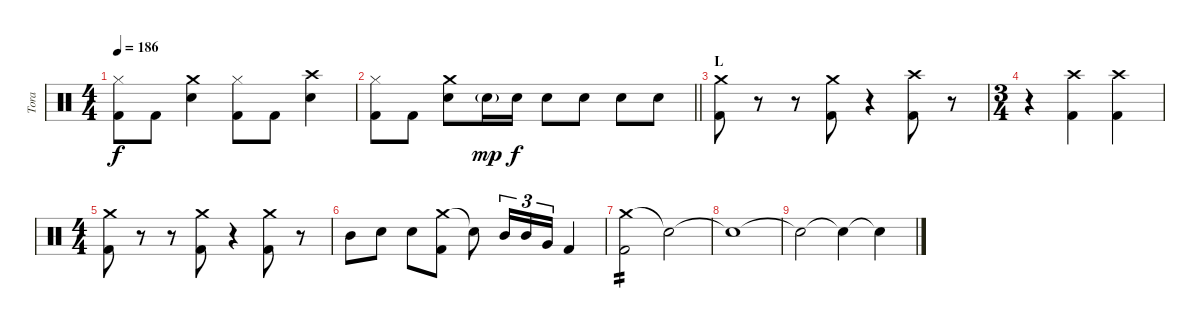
\track ("Tora" "Tora") {instrument percussion}
\staff {score}
\articulation defaults
\ts (4 4)
\tempo 186
\clef neutral
\ks c
("Hi-Hat (closed)" "Kick (hit) 2").8{dy f} "Kick (hit) 2".8 ("Crash medium (hit)" "Electric Snare (hit)").4 ("Hi-Hat (closed)" "Kick (hit) 2").8 "Kick (hit) 2".8 ("Crash high (hit)" "Electric Snare (hit)").4 |
\barLineRight lightlight
("Hi-Hat (closed)" "Kick (hit) 2").8 "Kick (hit) 2".8 ("Crash medium (hit)" "Electric Snare (hit)").8 "Electric Snare (hit)"{g}.16{dy mp} "Electric Snare (hit)".16{dy f} "Electric Snare (hit)".8 "Electric Snare (hit)".8 "Electric Snare (hit)".8 "Electric Snare (hit)".8 |
\section ("" "L")
("Crash medium (hit)" "Kick (hit) 2").8 r.8 r.8 ("Crash medium (hit)" "Kick (hit) 2").8 r.4 ("Crash high (hit)" "Kick (hit) 2").8 r.8 |
\ts (3 4)
r.4 ("Crash high (hit)" "Kick (hit) 2").4 ("Crash high (hit)" "Kick (hit) 2").4 |
\ts (4 4)
("Crash medium (hit)" "Kick (hit) 2").8 r.8 r.8 ("Crash medium (hit)" "Kick (hit) 2").8 r.4 ("Crash medium (hit)" "Kick (hit) 2").8 r.8 |
"Mid Tom (hit)".8 "Electric Snare (hit)".8 "Electric Snare (hit)".8 ("Crash medium (hit)" "Kick (hit) 2").8 "Snare (hit)"{t}.8 "Mid Tom (hit)".16{tu (3 2)} "Mid Tom (hit)".16{tu (3 2)} "Very Low Tom (hit)".16{tu (3 2)} "Kick (hit) 2".4 |
("Crash medium (hit)" "Kick (hit) 2").2{tp 2 volume 5} "Snare (hit)"{t}.2 |
"Snare (hit)"{t}.1 |
"Snare (hit)"{t}.2 "Snare (hit)"{t}.4 "Snare (hit)"{t}.4
